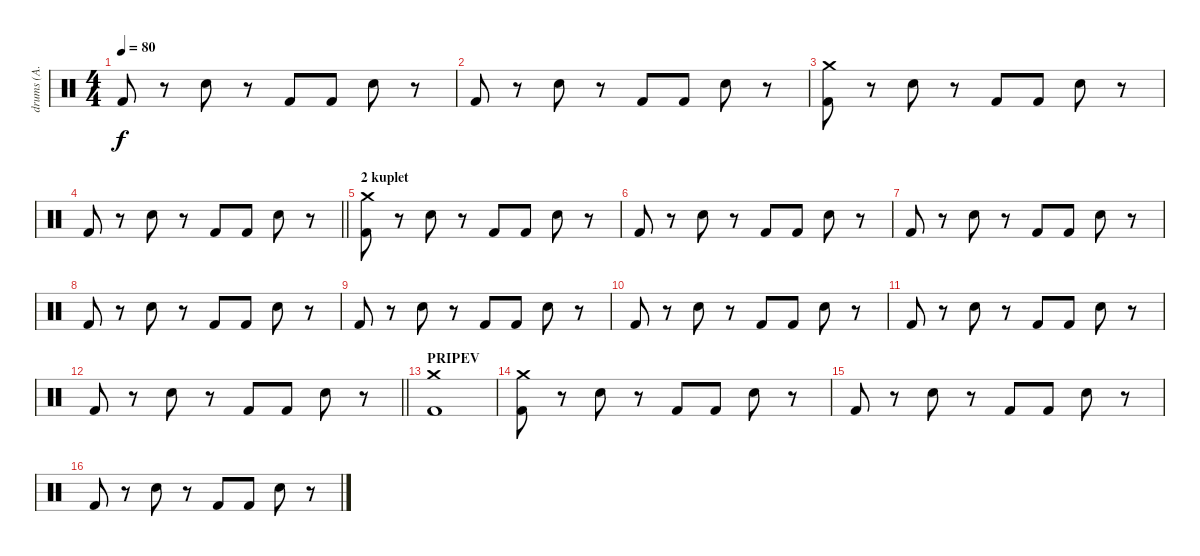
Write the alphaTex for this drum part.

\track ("drums (А. Котов)" "drums (А. ") {instrument percussion}
\staff {score}
\articulation defaults
\ts (4 4)
\tempo 80
\clef neutral
\ks c "Kick (hit) 2".8{dy f}
r.8 "Snare (hit) 2".8 r.8 "Kick (hit) 2".8 "Kick (hit) 2".8 "Snare (hit) 2".8 r.8 |
"Kick (hit) 2".8 r.8 "Snare (hit) 2".8 r.8 "Kick (hit) 2".8 "Kick (hit) 2".8 "Snare (hit) 2".8 r.8 |
("Kick (hit) 2" "Crash medium (hit)").8 r.8 "Snare (hit) 2".8 r.8 "Kick (hit) 2".8 "Kick (hit) 2".8 "Snare (hit) 2".8 r.8 |
\barLineRight lightlight "Kick (hit) 2".8
r.8 "Snare (hit) 2".8 r.8 "Kick (hit) 2".8 "Kick (hit) 2".8 "Snare (hit) 2".8 r.8 |
\section ("" "2 kuplet")
("Kick (hit) 2" "Crash medium (hit)").8 r.8 "Snare (hit) 2".8 r.8 "Kick (hit) 2".8 "Kick (hit) 2".8 "Snare (hit) 2".8 r.8 |
"Kick (hit) 2".8 r.8 "Snare (hit) 2".8 r.8 "Kick (hit) 2".8 "Kick (hit) 2".8 "Snare (hit) 2".8 r.8 |
"Kick (hit) 2".8 r.8 "Snare (hit) 2".8 r.8 "Kick (hit) 2".8 "Kick (hit) 2".8 "Snare (hit) 2".8 r.8 |
"Kick (hit) 2".8 r.8 "Snare (hit) 2".8 r.8 "Kick (hit) 2".8 "Kick (hit) 2".8 "Snare (hit) 2".8 r.8 |
"Kick (hit) 2".8 r.8 "Snare (hit) 2".8 r.8 "Kick (hit) 2".8 "Kick (hit) 2".8 "Snare (hit) 2".8 r.8 |
"Kick (hit) 2".8 r.8 "Snare (hit) 2".8 r.8 "Kick (hit) 2".8 "Kick (hit) 2".8 "Snare (hit) 2".8 r.8 |
"Kick (hit) 2".8 r.8 "Snare (hit) 2".8 r.8 "Kick (hit) 2".8 "Kick (hit) 2".8 "Snare (hit) 2".8 r.8 |
\barLineRight lightlight "Kick (hit) 2".8
r.8 "Snare (hit) 2".8 r.8 "Kick (hit) 2".8 "Kick (hit) 2".8 "Snare (hit) 2".8 r.8 |
\section ("" "PRIPEV")
("Kick (hit) 2" "Crash medium (hit)").1 |
("Kick (hit) 2" "Crash medium (hit)").8 r.8 "Snare (hit) 2".8 r.8 "Kick (hit) 2".8 "Kick (hit) 2".8 "Snare (hit) 2".8 r.8 |
"Kick (hit) 2".8 r.8 "Snare (hit) 2".8 r.8 "Kick (hit) 2".8 "Kick (hit) 2".8 "Snare (hit) 2".8 r.8 |
"Kick (hit) 2".8 r.8 "Snare (hit) 2".8 r.8 "Kick (hit) 2".8 "Kick (hit) 2".8 "Snare (hit) 2".8 r.8
